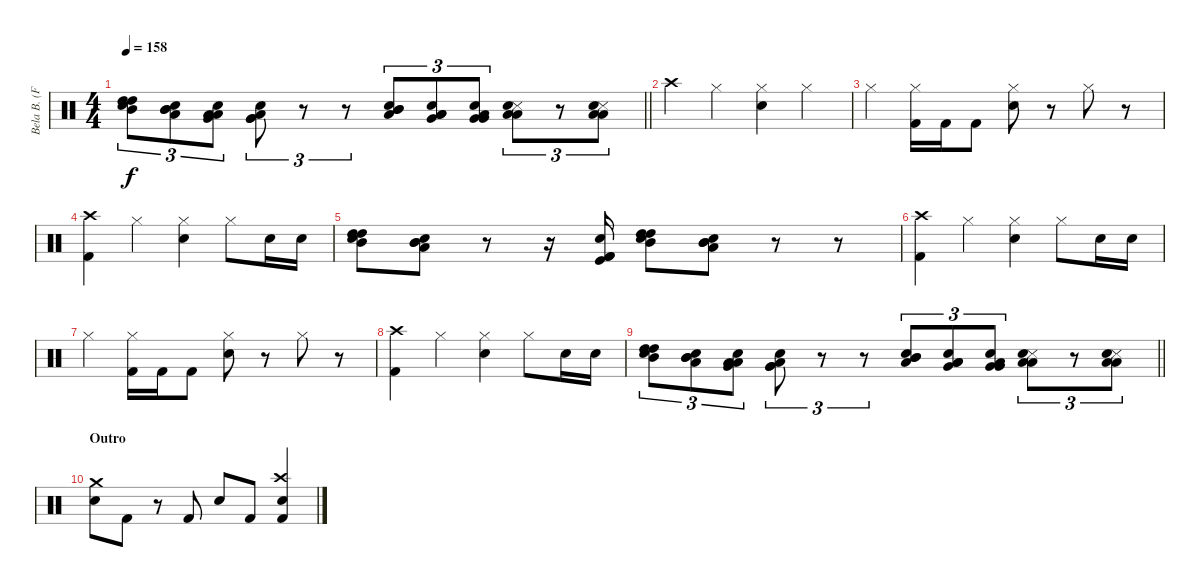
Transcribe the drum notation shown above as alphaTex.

\track ("Bela B. (Felsenheimer)" "Bela B. (F") {instrument percussion}
\staff {score}
\articulation defaults
\ts (4 4)
\tempo 158
\clef neutral
\barLineRight lightlight
\ks c
("Mid Tom (hit)" "Electric Snare (hit)" "High Tom (hit)" "High Tom (hit)").8{tu (3 2) dy f} ("Low Tom (hit)" "Electric Snare (hit)" "Mid Tom (hit)" "Mid Tom (hit)").8{tu (3 2)} ("Very Low Tom (hit)" "Electric Snare (hit)" "Low Tom (hit)" "Low Tom (hit)").8{tu (3 2)} ("Low Floor Tom (hit)" "Electric Snare (hit)" "Very Low Tom (hit)" "Very Low Tom (hit)").8{tu (3 2)} r.8{tu (3 2)} r.8{tu (3 2)} ("Low Tom (hit)" "Electric Snare (hit)" "Mid Tom (hit)" "Mid Tom (hit)").8{tu (3 2)} ("Very Low Tom (hit)" "Electric Snare (hit)" "Low Tom (hit)" "Low Tom (hit)").8{tu (3 2)} ("Low Floor Tom (hit)" "Electric Snare (hit)" "Very Low Tom (hit)" "Very Low Tom (hit)").8{tu (3 2)} ("Snare (side stick) 3" "Electric Snare (hit)" "Low Floor Tom (hit)" "Low Floor Tom (hit)").8{tu (3 2)} r.8{tu (3 2)} ("Snare (side stick) 3" "Electric Snare (hit)" "Low Floor Tom (hit)" "Low Floor Tom (hit)").8{tu (3 2)} |
"Crash high (hit)".4 "Hi-Hat (closed)".4 ("Hi-Hat (closed)" "Electric Snare (hit)").4 "Hi-Hat (closed)".4 |
"Hi-Hat (closed)".4 ("Kick (hit) 2" "Hi-Hat (closed)").16 "Kick (hit) 2".16 "Kick (hit) 2".8 ("Snare (hit) 2" "Hi-Hat (closed)").8 r.8 "Hi-Hat (closed)".8 r.8 |
("Crash high (hit)" "Kick (hit) 2").4 "Hi-Hat (closed)".4 ("Hi-Hat (closed)" "Electric Snare (hit)").4 "Hi-Hat (closed)".8 "Electric Snare (hit)".16 "Electric Snare (hit)".16 |
("Mid Tom (hit)" "High Tom (hit)" "Electric Snare (hit)" "High Tom (hit)").8 ("Low Tom (hit)" "Mid Tom (hit)" "Electric Snare (hit)" "Mid Tom (hit)").8 r.8 r.16 ("Kick (hit)" "Kick (hit) 2" "Electric Snare (hit)" "Kick (hit) 2").16 ("Mid Tom (hit)" "High Tom (hit)" "Electric Snare (hit)" "High Tom (hit)").8 ("Low Tom (hit)" "Mid Tom (hit)" "Electric Snare (hit)" "Mid Tom (hit)").8 r.8 r.8 |
("Crash high (hit)" "Kick (hit) 2").4 "Hi-Hat (closed)".4 ("Hi-Hat (closed)" "Electric Snare (hit)").4 "Hi-Hat (closed)".8 "Electric Snare (hit)".16 "Electric Snare (hit)".16 |
"Hi-Hat (closed)".4 ("Kick (hit) 2" "Hi-Hat (closed)").16 "Kick (hit) 2".16 "Kick (hit) 2".8 ("Snare (hit) 2" "Hi-Hat (closed)").8 r.8 "Hi-Hat (closed)".8 r.8 |
("Crash high (hit)" "Kick (hit) 2").4 "Hi-Hat (closed)".4 ("Hi-Hat (closed)" "Electric Snare (hit)").4 "Hi-Hat (closed)".8 "Electric Snare (hit)".16 "Electric Snare (hit)".16 |
\barLineRight lightlight
("Mid Tom (hit)" "Electric Snare (hit)" "High Tom (hit)" "High Tom (hit)").8{tu (3 2)} ("Low Tom (hit)" "Electric Snare (hit)" "Mid Tom (hit)" "Mid Tom (hit)").8{tu (3 2)} ("Very Low Tom (hit)" "Electric Snare (hit)" "Low Tom (hit)" "Low Tom (hit)").8{tu (3 2)} ("Low Floor Tom (hit)" "Electric Snare (hit)" "Very Low Tom (hit)" "Very Low Tom (hit)").8{tu (3 2)} r.8{tu (3 2)} r.8{tu (3 2)} ("Low Tom (hit)" "Electric Snare (hit)" "Mid Tom (hit)" "Mid Tom (hit)").8{tu (3 2)} ("Very Low Tom (hit)" "Electric Snare (hit)" "Low Tom (hit)" "Low Tom (hit)").8{tu (3 2)} ("Low Floor Tom (hit)" "Electric Snare (hit)" "Very Low Tom (hit)" "Very Low Tom (hit)").8{tu (3 2)} ("Snare (side stick) 3" "Electric Snare (hit)" "Low Floor Tom (hit)" "Low Floor Tom (hit)").8{tu (3 2)} r.8{tu (3 2)} ("Snare (side stick) 3" "Electric Snare (hit)" "Low Floor Tom (hit)" "Low Floor Tom (hit)").8{tu (3 2)} |
\section ("" "Outro")
("Crash medium (hit)" "Snare (hit) 2").8 "Kick (hit) 2".8 r.8 "Kick (hit) 2".8 "Snare (hit) 2".8 "Kick (hit) 2".8 ("Electric Snare (hit)" "Kick (hit) 2" "Crash high (hit)").4
